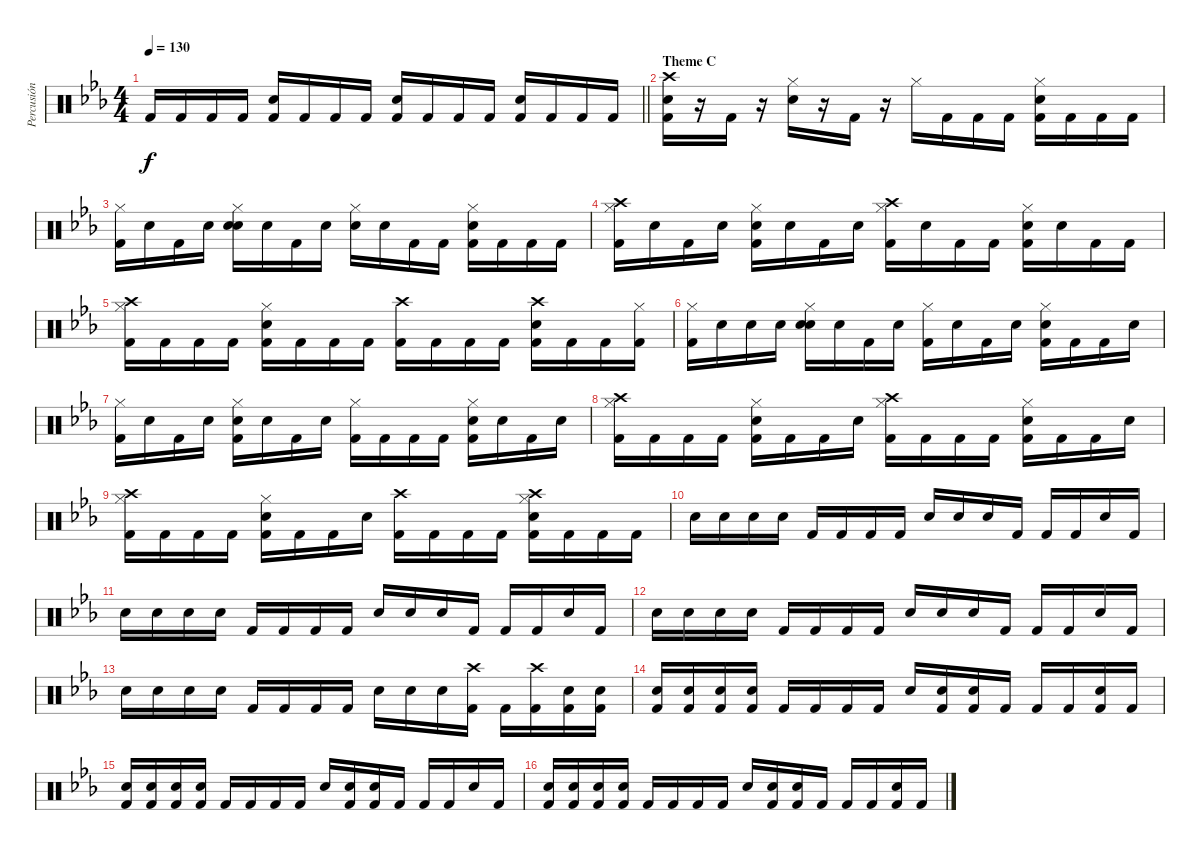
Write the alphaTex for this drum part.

\track ("Percusión" "Percusión") {instrument percussion}
\staff {score}
\articulation defaults
\ts (4 4)
\tempo 130
\clef neutral
\barLineRight lightlight
\ks eb "Kick (hit) 2".16{dy f} "Kick (hit) 2".16 "Kick (hit) 2".16 "Kick (hit) 2".16
("Snare (hit) 2" "Kick (hit) 2").16 "Kick (hit) 2".16 "Kick (hit) 2".16 "Kick (hit) 2".16 ("Snare (hit) 2" "Kick (hit) 2").16 "Kick (hit) 2".16 "Kick (hit) 2".16 "Kick (hit) 2".16 ("Snare (hit) 2" "Kick (hit) 2").16 "Kick (hit) 2".16 "Kick (hit) 2".16 "Kick (hit) 2".16 |
\section ("" "Theme C")
("Crash high (hit)" "Snare (hit) 2" "Kick (hit) 2").16 r.16 "Kick (hit) 2".16 r.16 ("Hi-Hat (closed)" "Snare (hit) 2").16 r.16 "Kick (hit) 2".16 r.16 "Hi-Hat (closed)".16 "Kick (hit) 2".16 "Kick (hit) 2".16 "Kick (hit) 2".16 ("Hi-Hat (closed)" "Snare (hit) 2" "Kick (hit) 2").16 "Kick (hit) 2".16 "Kick (hit) 2".16 "Kick (hit) 2".16 |
("Hi-Hat (closed)" "Kick (hit) 2").16 "Snare (hit)".16 "Kick (hit) 2".16 "Snare (hit)".16 ("Hi-Hat (closed)" "Snare (hit) 2" "Snare (hit)").16 "Snare (hit)".16 "Kick (hit) 2".16 "Snare (hit)".16 ("Hi-Hat (closed)" "Snare (hit)").16 "Snare (hit)".16 "Kick (hit) 2".16 "Kick (hit) 2".16 ("Hi-Hat (closed)" "Snare (hit) 2" "Kick (hit) 2").16 "Kick (hit) 2".16 "Kick (hit) 2".16 "Kick (hit) 2".16 |
("Crash high (hit)" "Hi-Hat (closed)" "Kick (hit) 2").16 "Snare (hit)".16 "Kick (hit) 2".16 "Snare (hit)".16 ("Hi-Hat (closed)" "Snare (hit) 2" "Kick (hit) 2").16 "Snare (hit)".16 "Kick (hit) 2".16 "Snare (hit)".16 ("Crash high (hit)" "Hi-Hat (closed)" "Kick (hit) 2").16 "Snare (hit)".16 "Kick (hit) 2".16 "Kick (hit) 2".16 ("Hi-Hat (closed)" "Snare (hit) 2" "Kick (hit) 2").16 "Snare (hit)".16 "Kick (hit) 2".16 "Kick (hit) 2".16 |
("Crash high (hit)" "Hi-Hat (closed)" "Kick (hit) 2").16 "Kick (hit) 2".16 "Kick (hit) 2".16 "Kick (hit) 2".16 ("Hi-Hat (closed)" "Snare (hit) 2" "Kick (hit) 2").16 "Kick (hit) 2".16 "Kick (hit) 2".16 "Kick (hit) 2".16 ("Crash high (hit)" "Kick (hit) 2").16 "Kick (hit) 2".16 "Kick (hit) 2".16 "Kick (hit) 2".16 ("Crash high (hit)" "Snare (hit) 2" "Kick (hit) 2").16 "Kick (hit) 2".16 "Kick (hit) 2".16 ("Hi-Hat (closed)" "Kick (hit) 2").16 |
("Hi-Hat (closed)" "Kick (hit) 2").16 "Snare (hit)".16 "Snare (hit)".16 "Snare (hit)".16 ("Hi-Hat (closed)" "Snare (hit) 2" "Snare (hit)").16 "Snare (hit)".16 "Kick (hit) 2".16 "Snare (hit) 2".16 ("Hi-Hat (closed)" "Kick (hit) 2").16 "Snare (hit)".16 "Kick (hit) 2".16 "Snare (hit)".16 ("Hi-Hat (closed)" "Snare (hit) 2" "Kick (hit) 2").16 "Kick (hit) 2".16 "Kick (hit) 2".16 "Snare (hit) 2".16 |
("Hi-Hat (closed)" "Kick (hit) 2").16 "Snare (hit)".16 "Kick (hit) 2".16 "Snare (hit)".16 ("Hi-Hat (closed)" "Snare (hit) 2" "Kick (hit) 2").16 "Snare (hit)".16 "Kick (hit) 2".16 "Snare (hit) 2".16 ("Hi-Hat (closed)" "Kick (hit) 2").16 "Kick (hit) 2".16 "Kick (hit) 2".16 "Kick (hit) 2".16 ("Hi-Hat (closed)" "Snare (hit) 2" "Kick (hit) 2").16 "Snare (hit)".16 "Kick (hit) 2".16 "Snare (hit) 2".16 |
("Hi-Hat (closed)" "Crash high (hit)" "Kick (hit) 2").16 "Kick (hit) 2".16 "Kick (hit) 2".16 "Kick (hit) 2".16 ("Hi-Hat (closed)" "Snare (hit) 2" "Kick (hit) 2").16 "Kick (hit) 2".16 "Kick (hit) 2".16 "Snare (hit) 2".16 ("Hi-Hat (closed)" "Crash high (hit)" "Kick (hit) 2").16 "Kick (hit) 2".16 "Kick (hit) 2".16 "Kick (hit) 2".16 ("Hi-Hat (closed)" "Snare (hit) 2" "Kick (hit) 2").16 "Kick (hit) 2".16 "Kick (hit) 2".16 "Snare (hit) 2".16 |
("Hi-Hat (closed)" "Crash high (hit)" "Kick (hit) 2").16 "Kick (hit) 2".16 "Kick (hit) 2".16 "Kick (hit) 2".16 ("Hi-Hat (closed)" "Snare (hit) 2" "Kick (hit) 2").16 "Kick (hit) 2".16 "Kick (hit) 2".16 "Snare (hit) 2".16 ("Crash high (hit)" "Kick (hit) 2").16 "Kick (hit) 2".16 "Kick (hit) 2".16 "Kick (hit) 2".16 ("Crash high (hit)" "Hi-Hat (closed)" "Snare (hit) 2" "Kick (hit) 2").16 "Kick (hit) 2".16 "Kick (hit) 2".16 "Kick (hit) 2".16 |
"Snare (hit) 2".16 "Snare (hit) 2".16 "Snare (hit) 2".16 "Snare (hit) 2".16 "Kick (hit) 2".16 "Kick (hit) 2".16 "Kick (hit) 2".16 "Kick (hit) 2".16 "Snare (hit) 2".16 "Snare (hit) 2".16 "Snare (hit)".16 "Kick (hit) 2".16 "Kick (hit) 2".16 "Kick (hit) 2".16 "Snare (hit) 2".16 "Kick (hit) 2".16 |
"Snare (hit) 2".16 "Snare (hit) 2".16 "Snare (hit) 2".16 "Snare (hit) 2".16 "Kick (hit) 2".16 "Kick (hit) 2".16 "Kick (hit) 2".16 "Kick (hit) 2".16 "Snare (hit) 2".16 "Snare (hit) 2".16 "Snare (hit)".16 "Kick (hit) 2".16 "Kick (hit) 2".16 "Kick (hit) 2".16 "Snare (hit) 2".16 "Kick (hit) 2".16 |
"Snare (hit) 2".16 "Snare (hit) 2".16 "Snare (hit) 2".16 "Snare (hit) 2".16 "Kick (hit) 2".16 "Kick (hit) 2".16 "Kick (hit) 2".16 "Kick (hit) 2".16 "Snare (hit) 2".16 "Snare (hit) 2".16 "Snare (hit)".16 "Kick (hit) 2".16 "Kick (hit) 2".16 "Kick (hit) 2".16 "Snare (hit) 2".16 "Kick (hit) 2".16 |
"Snare (hit) 2".16 "Snare (hit) 2".16 "Snare (hit) 2".16 "Snare (hit) 2".16 "Kick (hit) 2".16 "Kick (hit) 2".16 "Kick (hit) 2".16 "Kick (hit) 2".16 "Snare (hit)".16 "Snare (hit) 2".16 "Snare (hit) 2".16 ("Crash high (hit)" "Kick (hit) 2").16 "Kick (hit) 2".16 ("Crash high (hit)" "Kick (hit) 2").16 ("Snare (hit) 2" "Kick (hit) 2").16 ("Snare (hit) 2" "Kick (hit) 2").16 |
("Snare (hit) 2" "Kick (hit) 2").16 ("Snare (hit) 2" "Kick (hit) 2").16 ("Snare (hit) 2" "Kick (hit) 2").16 ("Snare (hit) 2" "Kick (hit) 2").16 "Kick (hit) 2".16 "Kick (hit) 2".16 "Kick (hit) 2".16 "Kick (hit) 2".16 "Snare (hit)".16 ("Snare (hit) 2" "Kick (hit) 2").16 ("Snare (hit) 2" "Kick (hit) 2").16 "Kick (hit) 2".16 "Kick (hit) 2".16 "Kick (hit) 2".16 ("Snare (hit) 2" "Kick (hit) 2").16 "Kick (hit) 2".16 |
("Snare (hit) 2" "Kick (hit) 2").16 ("Snare (hit) 2" "Kick (hit) 2").16 ("Snare (hit) 2" "Kick (hit) 2").16 ("Snare (hit) 2" "Kick (hit) 2").16 "Kick (hit) 2".16 "Kick (hit) 2".16 "Kick (hit) 2".16 "Kick (hit) 2".16 "Snare (hit)".16 ("Snare (hit) 2" "Kick (hit) 2").16 ("Snare (hit) 2" "Kick (hit) 2").16 "Kick (hit) 2".16 "Kick (hit) 2".16 "Kick (hit) 2".16 "Snare (hit) 2".16 "Kick (hit) 2".16 |
("Snare (hit) 2" "Kick (hit) 2").16 ("Snare (hit) 2" "Kick (hit) 2").16 ("Snare (hit) 2" "Kick (hit) 2").16 ("Snare (hit) 2" "Kick (hit) 2").16 "Kick (hit) 2".16 "Kick (hit) 2".16 "Kick (hit) 2".16 "Kick (hit) 2".16 "Snare (hit)".16 ("Snare (hit) 2" "Kick (hit) 2").16 ("Snare (hit) 2" "Kick (hit) 2").16 "Kick (hit) 2".16 "Kick (hit) 2".16 "Kick (hit) 2".16 ("Snare (hit) 2" "Kick (hit) 2").16 "Kick (hit) 2".16
